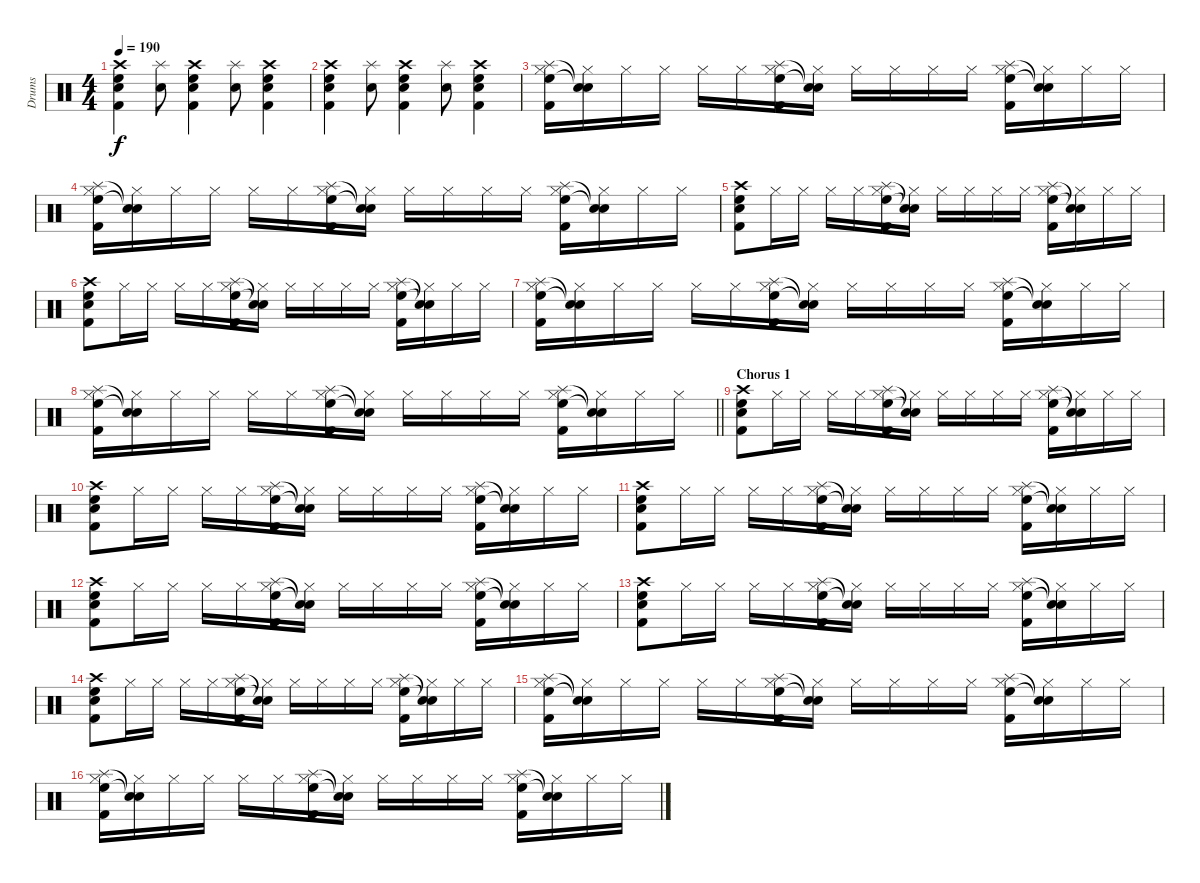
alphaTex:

\track ("Drums" "Drums") {instrument percussion}
\staff {score}
\articulation defaults
\ts (4 4)
\tempo 190
\clef neutral
\ks c
("Crash high (hit)" "High Floor Tom (hit)" "Snare (hit) 2" "Kick (hit) 2").4{dy f} ("Splash (hit)" "Electric Snare (hit)").8 ("Crash high (hit)" "High Floor Tom (hit)" "Snare (hit) 2" "Kick (hit) 2").4 ("Splash (hit)" "Electric Snare (hit)").8 ("Crash high (hit)" "High Floor Tom (hit)" "Snare (hit) 2" "Kick (hit) 2").4 |
("Crash high (hit)" "High Floor Tom (hit)" "Snare (hit) 2" "Kick (hit) 2").4 ("Splash (hit)" "Electric Snare (hit)").8 ("Crash high (hit)" "High Floor Tom (hit)" "Snare (hit) 2" "Kick (hit) 2").4 ("Splash (hit)" "Electric Snare (hit)").8 ("Crash high (hit)" "High Floor Tom (hit)" "Snare (hit) 2" "Kick (hit) 2").4 |
("Hi-Hat (closed)" "Splash (hit)" "High Floor Tom (hit)" "Kick (hit) 2").16 ("Hi-Hat (closed)" "Snare (hit)"{t} "Snare (hit)"{t}).16 "Hi-Hat (closed)".16 "Hi-Hat (closed)".16 "Hi-Hat (closed)".16 "Hi-Hat (closed)".16 ("Hi-Hat (closed)" "Splash (hit)" "High Floor Tom (hit)" "Kick (hit) 2").16 ("Hi-Hat (closed)" "Snare (hit)"{t} "Snare (hit)"{t}).16 "Hi-Hat (closed)".16 "Hi-Hat (closed)".16 "Hi-Hat (closed)".16 "Hi-Hat (closed)".16 ("Hi-Hat (closed)" "Splash (hit)" "High Floor Tom (hit)" "Kick (hit) 2").16 ("Hi-Hat (closed)" "Snare (hit)"{t} "Snare (hit)"{t}).16 "Hi-Hat (closed)".16 "Hi-Hat (closed)".16 |
("Hi-Hat (closed)" "Splash (hit)" "High Floor Tom (hit)" "Kick (hit) 2").16 ("Hi-Hat (closed)" "Snare (hit)"{t} "Snare (hit)"{t}).16 "Hi-Hat (closed)".16 "Hi-Hat (closed)".16 "Hi-Hat (closed)".16 "Hi-Hat (closed)".16 ("Hi-Hat (closed)" "Splash (hit)" "High Floor Tom (hit)" "Kick (hit) 2").16 ("Hi-Hat (closed)" "Snare (hit)"{t} "Snare (hit)"{t}).16 "Hi-Hat (closed)".16 "Hi-Hat (closed)".16 "Hi-Hat (closed)".16 "Hi-Hat (closed)".16 ("Hi-Hat (closed)" "Splash (hit)" "High Floor Tom (hit)" "Kick (hit) 2").16 ("Hi-Hat (closed)" "Snare (hit)"{t} "Snare (hit)"{t}).16 "Hi-Hat (closed)".16 "Hi-Hat (closed)".16 |
("Crash high (hit)" "High Floor Tom (hit)" "Snare (hit) 2" "Kick (hit) 2").8 "Hi-Hat (closed)".16 "Hi-Hat (closed)".16 "Hi-Hat (closed)".16 "Hi-Hat (closed)".16 ("Hi-Hat (closed)" "Splash (hit)" "High Floor Tom (hit)" "Kick (hit) 2").16 ("Hi-Hat (closed)" "Snare (hit)"{t} "Snare (hit)"{t}).16 "Hi-Hat (closed)".16 "Hi-Hat (closed)".16 "Hi-Hat (closed)".16 "Hi-Hat (closed)".16 ("Hi-Hat (closed)" "Splash (hit)" "High Floor Tom (hit)" "Kick (hit) 2").16 ("Hi-Hat (closed)" "Snare (hit)"{t} "Snare (hit)"{t}).16 "Hi-Hat (closed)".16 "Hi-Hat (closed)".16 |
("Crash high (hit)" "High Floor Tom (hit)" "Snare (hit) 2" "Kick (hit) 2").8 "Hi-Hat (closed)".16 "Hi-Hat (closed)".16 "Hi-Hat (closed)".16 "Hi-Hat (closed)".16 ("Hi-Hat (closed)" "Splash (hit)" "High Floor Tom (hit)" "Kick (hit) 2").16 ("Hi-Hat (closed)" "Snare (hit)"{t} "Snare (hit)"{t}).16 "Hi-Hat (closed)".16 "Hi-Hat (closed)".16 "Hi-Hat (closed)".16 "Hi-Hat (closed)".16 ("Hi-Hat (closed)" "Splash (hit)" "High Floor Tom (hit)" "Kick (hit) 2").16 ("Hi-Hat (closed)" "Snare (hit)"{t} "Snare (hit)"{t}).16 "Hi-Hat (closed)".16 "Hi-Hat (closed)".16 |
("Hi-Hat (closed)" "Splash (hit)" "High Floor Tom (hit)" "Kick (hit) 2").16 ("Hi-Hat (closed)" "Snare (hit)"{t} "Snare (hit)"{t}).16 "Hi-Hat (closed)".16 "Hi-Hat (closed)".16 "Hi-Hat (closed)".16 "Hi-Hat (closed)".16 ("Hi-Hat (closed)" "Splash (hit)" "High Floor Tom (hit)" "Kick (hit) 2").16 ("Hi-Hat (closed)" "Snare (hit)"{t} "Snare (hit)"{t}).16 "Hi-Hat (closed)".16 "Hi-Hat (closed)".16 "Hi-Hat (closed)".16 "Hi-Hat (closed)".16 ("Hi-Hat (closed)" "Splash (hit)" "High Floor Tom (hit)" "Kick (hit) 2").16 ("Hi-Hat (closed)" "Snare (hit)"{t} "Snare (hit)"{t}).16 "Hi-Hat (closed)".16 "Hi-Hat (closed)".16 |
\barLineRight lightlight
("Hi-Hat (closed)" "Splash (hit)" "High Floor Tom (hit)" "Kick (hit) 2").16 ("Hi-Hat (closed)" "Snare (hit)"{t} "Snare (hit)"{t}).16 "Hi-Hat (closed)".16 "Hi-Hat (closed)".16 "Hi-Hat (closed)".16 "Hi-Hat (closed)".16 ("Hi-Hat (closed)" "Splash (hit)" "High Floor Tom (hit)" "Kick (hit) 2").16 ("Hi-Hat (closed)" "Snare (hit)"{t} "Snare (hit)"{t}).16 "Hi-Hat (closed)".16 "Hi-Hat (closed)".16 "Hi-Hat (closed)".16 "Hi-Hat (closed)".16 ("Hi-Hat (closed)" "Splash (hit)" "High Floor Tom (hit)" "Kick (hit) 2").16 ("Hi-Hat (closed)" "Snare (hit)"{t} "Snare (hit)"{t}).16 "Hi-Hat (closed)".16 "Hi-Hat (closed)".16 |
\section ("" "Chorus 1")
("Crash high (hit)" "High Floor Tom (hit)" "Snare (hit) 2" "Kick (hit) 2").8 "Hi-Hat (closed)".16 "Hi-Hat (closed)".16 "Hi-Hat (closed)".16 "Hi-Hat (closed)".16 ("Hi-Hat (closed)" "Splash (hit)" "High Floor Tom (hit)" "Kick (hit) 2").16 ("Hi-Hat (closed)" "Snare (hit)"{t} "Snare (hit)"{t}).16 "Hi-Hat (closed)".16 "Hi-Hat (closed)".16 "Hi-Hat (closed)".16 "Hi-Hat (closed)".16 ("Hi-Hat (closed)" "Splash (hit)" "High Floor Tom (hit)" "Kick (hit) 2").16 ("Hi-Hat (closed)" "Snare (hit)"{t} "Snare (hit)"{t}).16 "Hi-Hat (closed)".16 "Hi-Hat (closed)".16 |
("Crash high (hit)" "High Floor Tom (hit)" "Snare (hit) 2" "Kick (hit) 2").8 "Hi-Hat (closed)".16 "Hi-Hat (closed)".16 "Hi-Hat (closed)".16 "Hi-Hat (closed)".16 ("Hi-Hat (closed)" "Splash (hit)" "High Floor Tom (hit)" "Kick (hit) 2").16 ("Hi-Hat (closed)" "Snare (hit)"{t} "Snare (hit)"{t}).16 "Hi-Hat (closed)".16 "Hi-Hat (closed)".16 "Hi-Hat (closed)".16 "Hi-Hat (closed)".16 ("Hi-Hat (closed)" "Splash (hit)" "High Floor Tom (hit)" "Kick (hit) 2").16 ("Hi-Hat (closed)" "Snare (hit)"{t} "Snare (hit)"{t}).16 "Hi-Hat (closed)".16 "Hi-Hat (closed)".16 |
("Crash high (hit)" "High Floor Tom (hit)" "Snare (hit) 2" "Kick (hit) 2").8 "Hi-Hat (closed)".16 "Hi-Hat (closed)".16 "Hi-Hat (closed)".16 "Hi-Hat (closed)".16 ("Hi-Hat (closed)" "Splash (hit)" "High Floor Tom (hit)" "Kick (hit) 2").16 ("Hi-Hat (closed)" "Snare (hit)"{t} "Snare (hit)"{t}).16 "Hi-Hat (closed)".16 "Hi-Hat (closed)".16 "Hi-Hat (closed)".16 "Hi-Hat (closed)".16 ("Hi-Hat (closed)" "Splash (hit)" "High Floor Tom (hit)" "Kick (hit) 2").16 ("Hi-Hat (closed)" "Snare (hit)"{t} "Snare (hit)"{t}).16 "Hi-Hat (closed)".16 "Hi-Hat (closed)".16 |
("Crash high (hit)" "High Floor Tom (hit)" "Snare (hit) 2" "Kick (hit) 2").8 "Hi-Hat (closed)".16 "Hi-Hat (closed)".16 "Hi-Hat (closed)".16 "Hi-Hat (closed)".16 ("Hi-Hat (closed)" "Splash (hit)" "High Floor Tom (hit)" "Kick (hit) 2").16 ("Hi-Hat (closed)" "Snare (hit)"{t} "Snare (hit)"{t}).16 "Hi-Hat (closed)".16 "Hi-Hat (closed)".16 "Hi-Hat (closed)".16 "Hi-Hat (closed)".16 ("Hi-Hat (closed)" "Splash (hit)" "High Floor Tom (hit)" "Kick (hit) 2").16 ("Hi-Hat (closed)" "Snare (hit)"{t} "Snare (hit)"{t}).16 "Hi-Hat (closed)".16 "Hi-Hat (closed)".16 |
("Crash high (hit)" "High Floor Tom (hit)" "Snare (hit) 2" "Kick (hit) 2").8 "Hi-Hat (closed)".16 "Hi-Hat (closed)".16 "Hi-Hat (closed)".16 "Hi-Hat (closed)".16 ("Hi-Hat (closed)" "Splash (hit)" "High Floor Tom (hit)" "Kick (hit) 2").16 ("Hi-Hat (closed)" "Snare (hit)"{t} "Snare (hit)"{t}).16 "Hi-Hat (closed)".16 "Hi-Hat (closed)".16 "Hi-Hat (closed)".16 "Hi-Hat (closed)".16 ("Hi-Hat (closed)" "Splash (hit)" "High Floor Tom (hit)" "Kick (hit) 2").16 ("Hi-Hat (closed)" "Snare (hit)"{t} "Snare (hit)"{t}).16 "Hi-Hat (closed)".16 "Hi-Hat (closed)".16 |
("Crash high (hit)" "High Floor Tom (hit)" "Snare (hit) 2" "Kick (hit) 2").8 "Hi-Hat (closed)".16 "Hi-Hat (closed)".16 "Hi-Hat (closed)".16 "Hi-Hat (closed)".16 ("Hi-Hat (closed)" "Splash (hit)" "High Floor Tom (hit)" "Kick (hit) 2").16 ("Hi-Hat (closed)" "Snare (hit)"{t} "Snare (hit)"{t}).16 "Hi-Hat (closed)".16 "Hi-Hat (closed)".16 "Hi-Hat (closed)".16 "Hi-Hat (closed)".16 ("Hi-Hat (closed)" "Splash (hit)" "High Floor Tom (hit)" "Kick (hit) 2").16 ("Hi-Hat (closed)" "Snare (hit)"{t} "Snare (hit)"{t}).16 "Hi-Hat (closed)".16 "Hi-Hat (closed)".16 |
("Hi-Hat (closed)" "Splash (hit)" "High Floor Tom (hit)" "Kick (hit) 2").16 ("Hi-Hat (closed)" "Snare (hit)"{t} "Snare (hit)"{t}).16 "Hi-Hat (closed)".16 "Hi-Hat (closed)".16 "Hi-Hat (closed)".16 "Hi-Hat (closed)".16 ("Hi-Hat (closed)" "Splash (hit)" "High Floor Tom (hit)" "Kick (hit) 2").16 ("Hi-Hat (closed)" "Snare (hit)"{t} "Snare (hit)"{t}).16 "Hi-Hat (closed)".16 "Hi-Hat (closed)".16 "Hi-Hat (closed)".16 "Hi-Hat (closed)".16 ("Hi-Hat (closed)" "Splash (hit)" "High Floor Tom (hit)" "Kick (hit) 2").16 ("Hi-Hat (closed)" "Snare (hit)"{t} "Snare (hit)"{t}).16 "Hi-Hat (closed)".16 "Hi-Hat (closed)".16 |
("Hi-Hat (closed)" "Splash (hit)" "High Floor Tom (hit)" "Kick (hit) 2").16 ("Hi-Hat (closed)" "Snare (hit)"{t} "Snare (hit)"{t}).16 "Hi-Hat (closed)".16 "Hi-Hat (closed)".16 "Hi-Hat (closed)".16 "Hi-Hat (closed)".16 ("Hi-Hat (closed)" "Splash (hit)" "High Floor Tom (hit)" "Kick (hit) 2").16 ("Hi-Hat (closed)" "Snare (hit)"{t} "Snare (hit)"{t}).16 "Hi-Hat (closed)".16 "Hi-Hat (closed)".16 "Hi-Hat (closed)".16 "Hi-Hat (closed)".16 ("Hi-Hat (closed)" "Splash (hit)" "High Floor Tom (hit)" "Kick (hit) 2").16 ("Hi-Hat (closed)" "Snare (hit)"{t} "Snare (hit)"{t}).16 "Hi-Hat (closed)".16 "Hi-Hat (closed)".16
